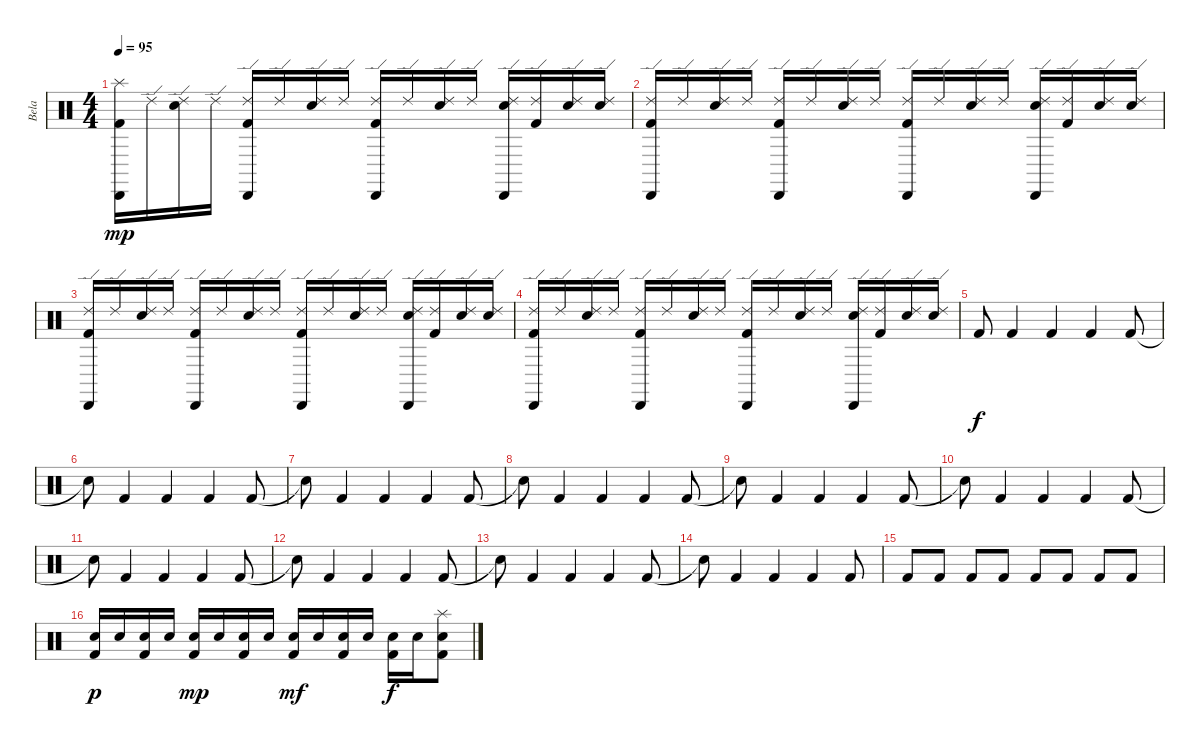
\track ("Bela" "Bela") {instrument percussion}
\staff {score}
\articulation defaults
\ts (4 4)
\tempo 95
\clef neutral
\ks c
("Splash (hit)" "Cabasa (hit)" "Kick (hit) 2").16{dy mp} "Ride (edge) 2".16 ("Ride (edge) 2" "Snare (hit) 2").16 "Ride (edge) 2".16 ("Ride (edge) 2" "Cabasa (hit)" "Kick (hit) 2").16 "Ride (edge) 2".16 ("Ride (edge) 2" "Snare (hit) 2").16 "Ride (edge) 2".16 ("Ride (edge) 2" "Cabasa (hit)" "Kick (hit) 2").16 "Ride (edge) 2".16 ("Ride (edge) 2" "Snare (hit) 2").16 "Ride (edge) 2".16 ("Ride (edge) 2" "Cabasa (hit)" "Snare (hit) 2").16 ("Ride (edge) 2" "Kick (hit) 2").16 ("Ride (edge) 2" "Snare (hit) 2").16 ("Ride (edge) 2" "Snare (hit) 2").16 |
("Ride (edge) 2" "Cabasa (hit)" "Kick (hit) 2").16 "Ride (edge) 2".16 ("Ride (edge) 2" "Snare (hit) 2").16 "Ride (edge) 2".16 ("Ride (edge) 2" "Cabasa (hit)" "Kick (hit) 2").16 "Ride (edge) 2".16 ("Ride (edge) 2" "Snare (hit) 2").16 "Ride (edge) 2".16 ("Ride (edge) 2" "Cabasa (hit)" "Kick (hit) 2").16 "Ride (edge) 2".16 ("Ride (edge) 2" "Snare (hit) 2").16 "Ride (edge) 2".16 ("Ride (edge) 2" "Cabasa (hit)" "Snare (hit) 2").16 ("Ride (edge) 2" "Kick (hit) 2").16 ("Ride (edge) 2" "Snare (hit) 2").16 ("Ride (edge) 2" "Snare (hit) 2").16 |
("Ride (edge) 2" "Cabasa (hit)" "Kick (hit) 2").16 "Ride (edge) 2".16 ("Ride (edge) 2" "Snare (hit) 2").16 "Ride (edge) 2".16 ("Ride (edge) 2" "Cabasa (hit)" "Kick (hit) 2").16 "Ride (edge) 2".16 ("Ride (edge) 2" "Snare (hit) 2").16 "Ride (edge) 2".16 ("Ride (edge) 2" "Cabasa (hit)" "Kick (hit) 2").16 "Ride (edge) 2".16 ("Ride (edge) 2" "Snare (hit) 2").16 "Ride (edge) 2".16 ("Ride (edge) 2" "Cabasa (hit)" "Snare (hit) 2").16 ("Ride (edge) 2" "Kick (hit) 2").16 ("Ride (edge) 2" "Snare (hit) 2").16 ("Ride (edge) 2" "Snare (hit) 2").16 |
("Ride (edge) 2" "Cabasa (hit)" "Kick (hit) 2").16 "Ride (edge) 2".16 ("Ride (edge) 2" "Snare (hit) 2").16 "Ride (edge) 2".16 ("Ride (edge) 2" "Cabasa (hit)" "Kick (hit) 2").16 "Ride (edge) 2".16 ("Ride (edge) 2" "Snare (hit) 2").16 "Ride (edge) 2".16 ("Ride (edge) 2" "Cabasa (hit)" "Kick (hit) 2").16 "Ride (edge) 2".16 ("Ride (edge) 2" "Snare (hit) 2").16 "Ride (edge) 2".16 ("Ride (edge) 2" "Cabasa (hit)" "Snare (hit) 2").16 ("Ride (edge) 2" "Kick (hit) 2").16 ("Ride (edge) 2" "Snare (hit) 2").16 ("Ride (edge) 2" "Snare (hit) 2").16 |
"Kick (hit) 2".8{dy f} "Kick (hit) 2".4 "Kick (hit) 2".4 "Kick (hit) 2".4 "Kick (hit) 2".8 |
"Snare (hit)"{t}.8 "Kick (hit) 2".4 "Kick (hit) 2".4 "Kick (hit) 2".4 "Kick (hit) 2".8 |
"Snare (hit)"{t}.8 "Kick (hit) 2".4 "Kick (hit) 2".4 "Kick (hit) 2".4 "Kick (hit) 2".8 |
"Snare (hit)"{t}.8 "Kick (hit) 2".4 "Kick (hit) 2".4 "Kick (hit) 2".4 "Kick (hit) 2".8 |
"Snare (hit)"{t}.8 "Kick (hit) 2".4 "Kick (hit) 2".4 "Kick (hit) 2".4 "Kick (hit) 2".8 |
"Snare (hit)"{t}.8 "Kick (hit) 2".4 "Kick (hit) 2".4 "Kick (hit) 2".4 "Kick (hit) 2".8 |
"Snare (hit)"{t}.8 "Kick (hit) 2".4 "Kick (hit) 2".4 "Kick (hit) 2".4 "Kick (hit) 2".8 |
"Snare (hit)"{t}.8 "Kick (hit) 2".4 "Kick (hit) 2".4 "Kick (hit) 2".4 "Kick (hit) 2".8 |
"Snare (hit)"{t}.8 "Kick (hit) 2".4 "Kick (hit) 2".4 "Kick (hit) 2".4 "Kick (hit) 2".8 |
"Snare (hit)"{t}.8 "Kick (hit) 2".4 "Kick (hit) 2".4 "Kick (hit) 2".4 "Kick (hit) 2".8 |
"Kick (hit) 2".8 "Kick (hit) 2".8 "Kick (hit) 2".8 "Kick (hit) 2".8 "Kick (hit) 2".8 "Kick (hit) 2".8 "Kick (hit) 2".8 "Kick (hit) 2".8 |
("Snare (hit) 2" "Kick (hit) 2").16{dy p} "Snare (hit) 2".16 ("Snare (hit) 2" "Kick (hit) 2").16 "Snare (hit) 2".16 ("Snare (hit) 2" "Kick (hit) 2").16{dy mp} "Snare (hit) 2".16 ("Snare (hit) 2" "Kick (hit) 2").16 "Snare (hit) 2".16 ("Snare (hit) 2" "Kick (hit) 2").16{dy mf} "Snare (hit) 2".16 ("Snare (hit) 2" "Kick (hit) 2").16 "Snare (hit) 2".16 ("Snare (hit) 2" "Kick (hit) 2").16{dy f} "Snare (hit) 2".16 ("Splash (hit)" "Snare (hit) 2" "Kick (hit) 2").8
